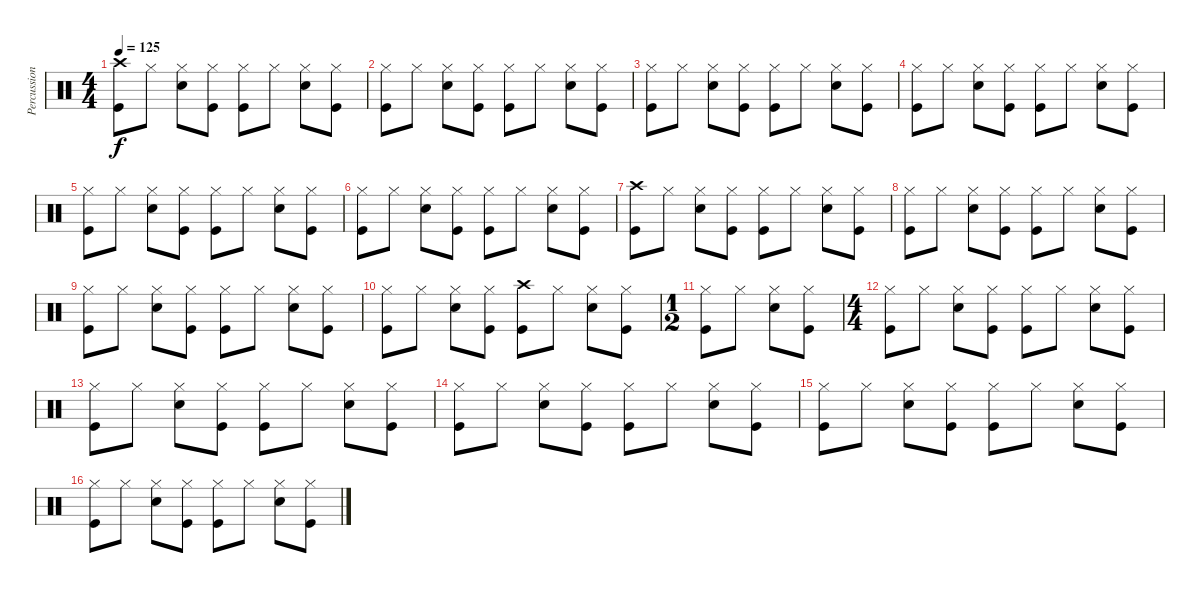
\track ("Percussion" "Percussion") {instrument percussion}
\staff {score}
\articulation defaults
\ts (4 4)
\tempo 125
\clef neutral
\ks c
("Crash high (hit)" "Kick (hit)").8{dy f} "Hi-Hat (closed)".8 ("Hi-Hat (closed)" "Electric Snare (hit)").8 ("Hi-Hat (closed)" "Kick (hit)").8 ("Hi-Hat (closed)" "Kick (hit)").8 "Hi-Hat (closed)".8 ("Hi-Hat (closed)" "Electric Snare (hit)").8 ("Hi-Hat (closed)" "Kick (hit)").8 |
("Hi-Hat (closed)" "Kick (hit)").8 "Hi-Hat (closed)".8 ("Hi-Hat (closed)" "Electric Snare (hit)").8 ("Hi-Hat (closed)" "Kick (hit)").8 ("Hi-Hat (closed)" "Kick (hit)").8 "Hi-Hat (closed)".8 ("Hi-Hat (closed)" "Electric Snare (hit)").8 ("Hi-Hat (closed)" "Kick (hit)").8 |
("Hi-Hat (closed)" "Kick (hit)").8 "Hi-Hat (closed)".8 ("Hi-Hat (closed)" "Electric Snare (hit)").8 ("Hi-Hat (closed)" "Kick (hit)").8 ("Hi-Hat (closed)" "Kick (hit)").8 "Hi-Hat (closed)".8 ("Hi-Hat (closed)" "Electric Snare (hit)").8 ("Hi-Hat (closed)" "Kick (hit)").8 |
("Hi-Hat (closed)" "Kick (hit)").8 "Hi-Hat (closed)".8 ("Hi-Hat (closed)" "Electric Snare (hit)").8 ("Hi-Hat (closed)" "Kick (hit)").8 ("Hi-Hat (closed)" "Kick (hit)").8 "Hi-Hat (closed)".8 ("Hi-Hat (closed)" "Electric Snare (hit)").8 ("Hi-Hat (closed)" "Kick (hit)").8 |
("Hi-Hat (closed)" "Kick (hit)").8 "Hi-Hat (closed)".8 ("Hi-Hat (closed)" "Electric Snare (hit)").8 ("Hi-Hat (closed)" "Kick (hit)").8 ("Hi-Hat (closed)" "Kick (hit)").8 "Hi-Hat (closed)".8 ("Hi-Hat (closed)" "Electric Snare (hit)").8 ("Hi-Hat (closed)" "Kick (hit)").8 |
("Hi-Hat (closed)" "Kick (hit)").8 "Hi-Hat (closed)".8 ("Hi-Hat (closed)" "Electric Snare (hit)").8 ("Hi-Hat (closed)" "Kick (hit)").8 ("Hi-Hat (closed)" "Kick (hit)").8 "Hi-Hat (closed)".8 ("Hi-Hat (closed)" "Electric Snare (hit)").8 ("Hi-Hat (closed)" "Kick (hit)").8 |
("Crash high (hit)" "Kick (hit)").8 "Hi-Hat (closed)".8 ("Hi-Hat (closed)" "Electric Snare (hit)").8 ("Hi-Hat (closed)" "Kick (hit)").8 ("Hi-Hat (closed)" "Kick (hit)").8 "Hi-Hat (closed)".8 ("Hi-Hat (closed)" "Electric Snare (hit)").8 ("Hi-Hat (closed)" "Kick (hit)").8 |
("Hi-Hat (closed)" "Kick (hit)").8 "Hi-Hat (closed)".8 ("Hi-Hat (closed)" "Electric Snare (hit)").8 ("Hi-Hat (closed)" "Kick (hit)").8 ("Hi-Hat (closed)" "Kick (hit)").8 "Hi-Hat (closed)".8 ("Hi-Hat (closed)" "Electric Snare (hit)").8 ("Hi-Hat (closed)" "Kick (hit)").8 |
("Hi-Hat (closed)" "Kick (hit)").8 "Hi-Hat (closed)".8 ("Hi-Hat (closed)" "Electric Snare (hit)").8 ("Hi-Hat (closed)" "Kick (hit)").8 ("Hi-Hat (closed)" "Kick (hit)").8 "Hi-Hat (closed)".8 ("Hi-Hat (closed)" "Electric Snare (hit)").8 ("Hi-Hat (closed)" "Kick (hit)").8 |
("Hi-Hat (closed)" "Kick (hit)").8 "Hi-Hat (closed)".8 ("Hi-Hat (closed)" "Electric Snare (hit)").8 ("Hi-Hat (closed)" "Kick (hit)").8 ("Crash high (hit)" "Kick (hit)").8 "Hi-Hat (closed)".8 ("Hi-Hat (closed)" "Electric Snare (hit)").8 ("Hi-Hat (closed)" "Kick (hit)").8 |
\ts (1 2)
("Hi-Hat (closed)" "Kick (hit)").8 "Hi-Hat (closed)".8 ("Hi-Hat (closed)" "Electric Snare (hit)").8 ("Hi-Hat (closed)" "Kick (hit)").8 |
\ts (4 4)
("Hi-Hat (closed)" "Kick (hit)").8 "Hi-Hat (closed)".8 ("Hi-Hat (closed)" "Electric Snare (hit)").8 ("Hi-Hat (closed)" "Kick (hit)").8 ("Hi-Hat (closed)" "Kick (hit)").8 "Hi-Hat (closed)".8 ("Hi-Hat (closed)" "Electric Snare (hit)").8 ("Hi-Hat (closed)" "Kick (hit)").8 |
("Hi-Hat (closed)" "Kick (hit)").8 "Hi-Hat (closed)".8 ("Hi-Hat (closed)" "Electric Snare (hit)").8 ("Hi-Hat (closed)" "Kick (hit)").8 ("Hi-Hat (closed)" "Kick (hit)").8 "Hi-Hat (closed)".8 ("Hi-Hat (closed)" "Electric Snare (hit)").8 ("Hi-Hat (closed)" "Kick (hit)").8 |
("Hi-Hat (closed)" "Kick (hit)").8 "Hi-Hat (closed)".8 ("Hi-Hat (closed)" "Electric Snare (hit)").8 ("Hi-Hat (closed)" "Kick (hit)").8 ("Hi-Hat (closed)" "Kick (hit)").8 "Hi-Hat (closed)".8 ("Hi-Hat (closed)" "Electric Snare (hit)").8 ("Hi-Hat (closed)" "Kick (hit)").8 |
("Hi-Hat (closed)" "Kick (hit)").8 "Hi-Hat (closed)".8 ("Hi-Hat (closed)" "Electric Snare (hit)").8 ("Hi-Hat (closed)" "Kick (hit)").8 ("Hi-Hat (closed)" "Kick (hit)").8 "Hi-Hat (closed)".8 ("Hi-Hat (closed)" "Electric Snare (hit)").8 ("Hi-Hat (closed)" "Kick (hit)").8 |
("Hi-Hat (closed)" "Kick (hit)").8 "Hi-Hat (closed)".8 ("Hi-Hat (closed)" "Electric Snare (hit)").8 ("Hi-Hat (closed)" "Kick (hit)").8 ("Hi-Hat (closed)" "Kick (hit)").8 "Hi-Hat (closed)".8 ("Hi-Hat (closed)" "Electric Snare (hit)").8 ("Hi-Hat (closed)" "Kick (hit)").8
